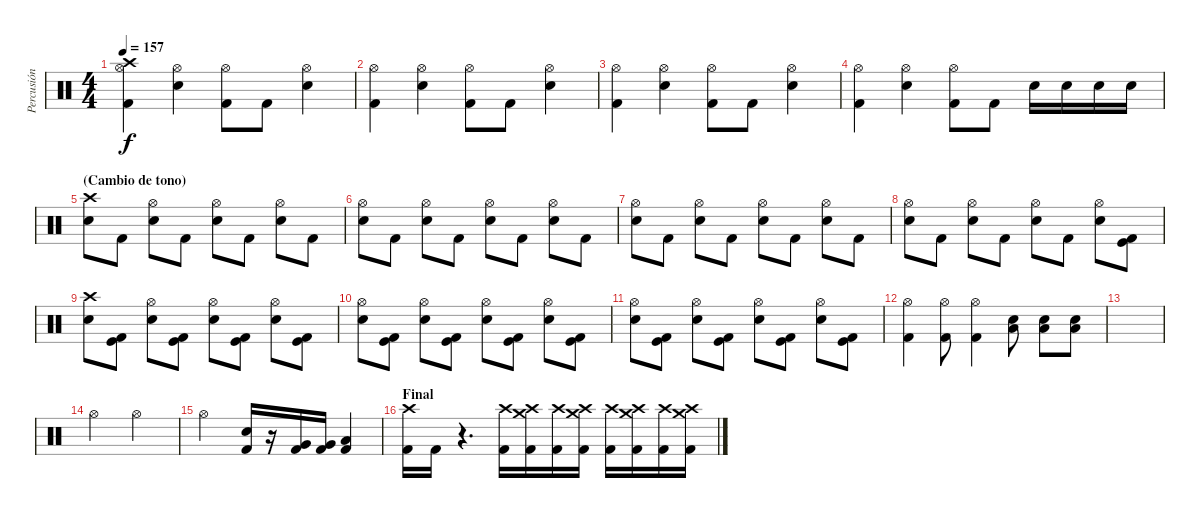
\track ("Percusión" "Percusión") {instrument percussion}
\staff {score}
\articulation defaults
\ts (4 4)
\tempo 157
\clef neutral
\ks c
("Crash high (hit)" "Hi-Hat (open)" "Kick (hit) 2").4{dy f} ("Hi-Hat (open)" "Snare (hit) 2").4 ("Hi-Hat (open)" "Kick (hit) 2").8 "Kick (hit) 2".8 ("Hi-Hat (open)" "Snare (hit) 2").4 |
("Hi-Hat (open)" "Kick (hit) 2").4 ("Hi-Hat (open)" "Snare (hit) 2").4 ("Hi-Hat (open)" "Kick (hit) 2").8 "Kick (hit) 2".8 ("Hi-Hat (open)" "Snare (hit) 2").4 |
("Hi-Hat (open)" "Kick (hit) 2").4 ("Hi-Hat (open)" "Snare (hit) 2").4 ("Hi-Hat (open)" "Kick (hit) 2").8 "Kick (hit) 2".8 ("Hi-Hat (open)" "Snare (hit) 2").4 |
("Hi-Hat (open)" "Kick (hit) 2").4 ("Hi-Hat (open)" "Snare (hit) 2").4 ("Hi-Hat (open)" "Kick (hit) 2").8 "Kick (hit) 2".8 "Snare (hit) 2".16 "Snare (hit) 2".16 "Snare (hit) 2".16 "Snare (hit) 2".16 |
\section ("" "(Cambio de tono)")
("Crash high (hit)" "Snare (hit) 2").8 "Kick (hit) 2".8 ("Hi-Hat (open)" "Snare (hit) 2").8 "Kick (hit) 2".8 ("Hi-Hat (open)" "Snare (hit) 2").8 "Kick (hit) 2".8 ("Hi-Hat (open)" "Snare (hit) 2").8 "Kick (hit) 2".8 |
("Hi-Hat (open)" "Snare (hit) 2").8 "Kick (hit) 2".8 ("Hi-Hat (open)" "Snare (hit) 2").8 "Kick (hit) 2".8 ("Hi-Hat (open)" "Snare (hit) 2").8 "Kick (hit) 2".8 ("Hi-Hat (open)" "Snare (hit) 2").8 "Kick (hit) 2".8 |
("Hi-Hat (open)" "Snare (hit) 2").8 "Kick (hit) 2".8 ("Hi-Hat (open)" "Snare (hit) 2").8 "Kick (hit) 2".8 ("Hi-Hat (open)" "Snare (hit) 2").8 "Kick (hit) 2".8 ("Hi-Hat (open)" "Snare (hit) 2").8 "Kick (hit) 2".8 |
("Hi-Hat (open)" "Snare (hit) 2").8 "Kick (hit) 2".8 ("Hi-Hat (open)" "Snare (hit) 2").8 "Kick (hit) 2".8 ("Hi-Hat (open)" "Snare (hit) 2").8 "Kick (hit) 2".8 ("Hi-Hat (open)" "Snare (hit) 2").8 ("Kick (hit)" "Kick (hit) 2").8 |
("Crash high (hit)" "Snare (hit) 2").8 ("Kick (hit)" "Kick (hit) 2").8 ("Hi-Hat (open)" "Snare (hit) 2").8 ("Kick (hit)" "Kick (hit) 2").8 ("Hi-Hat (open)" "Snare (hit) 2").8 ("Kick (hit)" "Kick (hit) 2").8 ("Hi-Hat (open)" "Snare (hit) 2").8 ("Kick (hit)" "Kick (hit) 2").8 |
("Hi-Hat (open)" "Snare (hit) 2").8 ("Kick (hit)" "Kick (hit) 2").8 ("Hi-Hat (open)" "Snare (hit) 2").8 ("Kick (hit)" "Kick (hit) 2").8 ("Hi-Hat (open)" "Snare (hit) 2").8 ("Kick (hit)" "Kick (hit) 2").8 ("Hi-Hat (open)" "Snare (hit) 2").8 ("Kick (hit)" "Kick (hit) 2").8 |
("Hi-Hat (open)" "Snare (hit) 2").8 ("Kick (hit)" "Kick (hit) 2").8 ("Hi-Hat (open)" "Snare (hit) 2").8 ("Kick (hit)" "Kick (hit) 2").8 ("Hi-Hat (open)" "Snare (hit) 2").8 ("Kick (hit)" "Kick (hit) 2").8 ("Hi-Hat (open)" "Snare (hit) 2").8 ("Kick (hit)" "Kick (hit) 2").8 |
("Hi-Hat (open)" "Kick (hit) 2").4 ("Hi-Hat (open)" "Kick (hit) 2").8 ("Hi-Hat (open)" "Kick (hit) 2").4 ("Snare (hit) 2" "Low Floor Tom (hit)").8 ("Snare (hit) 2" "Low Floor Tom (hit)").8 ("Snare (hit) 2" "Low Floor Tom (hit)").8 |
|
"Hi-Hat (open)".2 "Hi-Hat (open)".2 |
"Hi-Hat (open)".2 ("Snare (hit) 2" "Kick (hit) 2").16 r.16 ("Very Low Tom (hit)" "Kick (hit) 2").16 ("Very Low Tom (hit)" "Kick (hit) 2").16 ("Low Floor Tom (hit)" "Kick (hit) 2").4 |
\section ("" "Final")
("Crash high (hit)" "Kick (hit) 2").16 "Kick (hit) 2".16 r.4{d} ("Crash high (hit)" "Kick (hit) 2").16 ("Crash medium (hit)" "Crash high (hit)" "Kick (hit) 2").16 ("Crash high (hit)" "Kick (hit) 2").16 ("Crash medium (hit)" "Crash high (hit)" "Kick (hit) 2").16 ("Crash high (hit)" "Kick (hit) 2").16 ("Crash medium (hit)" "Crash high (hit)" "Kick (hit) 2").16 ("Crash high (hit)" "Kick (hit) 2").16 ("Crash medium (hit)" "Crash high (hit)" "Kick (hit) 2").16
